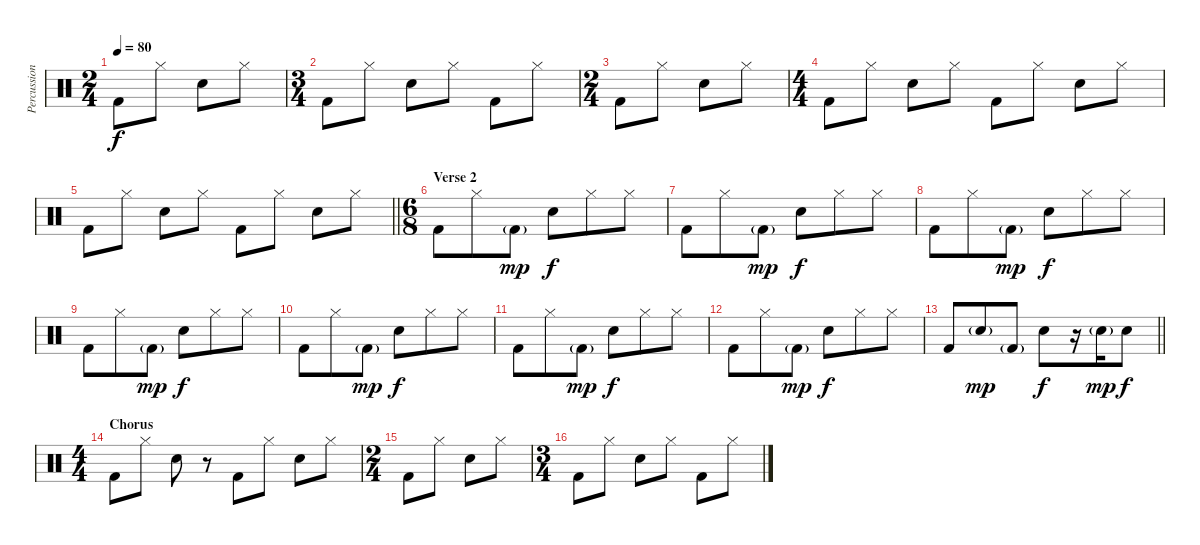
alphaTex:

\track ("Percussion" "Percussion") {instrument percussion}
\staff {score}
\articulation defaults
\ts (2 4)
\tempo 80
\clef neutral
\ks c "Kick (hit) 2".8{dy f} "Hi-Hat (closed)".8 "Snare (hit) 2".8 "Hi-Hat (closed)".8
|
\ts (3 4)
"Kick (hit) 2".8 "Hi-Hat (closed)".8 "Snare (hit) 2".8 "Hi-Hat (closed)".8 "Kick (hit) 2".8 "Hi-Hat (closed)".8 |
\ts (2 4)
"Kick (hit) 2".8 "Hi-Hat (closed)".8 "Snare (hit) 2".8 "Hi-Hat (closed)".8 |
\ts (4 4)
"Kick (hit) 2".8 "Hi-Hat (closed)".8 "Snare (hit) 2".8 "Hi-Hat (closed)".8 "Kick (hit) 2".8 "Hi-Hat (closed)".8 "Snare (hit) 2".8 "Hi-Hat (closed)".8 |
\barLineRight lightlight "Kick (hit) 2".8 "Hi-Hat (closed)".8 "Snare (hit) 2".8 "Hi-Hat (closed)".8 "Kick (hit) 2".8 "Hi-Hat (closed)".8 "Snare (hit) 2".8 "Hi-Hat (closed)".8
|
\ts (6 8)
\section ("" "Verse 2")
"Kick (hit) 2".8 "Hi-Hat (closed)".8 "Kick (hit) 2"{g}.8{dy mp} "Snare (hit) 2".8{dy f} "Hi-Hat (closed)".8 "Hi-Hat (closed)".8 |
"Kick (hit) 2".8 "Hi-Hat (closed)".8 "Kick (hit) 2"{g}.8{dy mp} "Snare (hit) 2".8{dy f} "Hi-Hat (closed)".8 "Hi-Hat (closed)".8 |
"Kick (hit) 2".8 "Hi-Hat (closed)".8 "Kick (hit) 2"{g}.8{dy mp} "Snare (hit) 2".8{dy f} "Hi-Hat (closed)".8 "Hi-Hat (closed)".8 |
"Kick (hit) 2".8 "Hi-Hat (closed)".8 "Kick (hit) 2"{g}.8{dy mp} "Snare (hit) 2".8{dy f} "Hi-Hat (closed)".8 "Hi-Hat (closed)".8 |
"Kick (hit) 2".8 "Hi-Hat (closed)".8 "Kick (hit) 2"{g}.8{dy mp} "Snare (hit) 2".8{dy f} "Hi-Hat (closed)".8 "Hi-Hat (closed)".8 |
"Kick (hit) 2".8 "Hi-Hat (closed)".8 "Kick (hit) 2"{g}.8{dy mp} "Snare (hit) 2".8{dy f} "Hi-Hat (closed)".8 "Hi-Hat (closed)".8 |
"Kick (hit) 2".8 "Hi-Hat (closed)".8 "Kick (hit) 2"{g}.8{dy mp} "Snare (hit) 2".8{dy f} "Hi-Hat (closed)".8 "Hi-Hat (closed)".8 |
\barLineRight lightlight "Kick (hit) 2".8 "Snare (hit) 2"{g}.8{dy mp} "Kick (hit) 2"{g}.8 "Snare (hit) 2".8{dy f}
r.16 "Snare (hit) 2"{g}.16{dy mp} "Snare (hit) 2".8{dy f} |
\ts (4 4)
\section ("" "Chorus")
"Kick (hit) 2".8 "Hi-Hat (closed)".8 "Snare (hit) 2".8 r.8 "Kick (hit) 2".8 "Hi-Hat (closed)".8 "Snare (hit) 2".8 "Hi-Hat (closed)".8 |
\ts (2 4)
"Kick (hit) 2".8 "Hi-Hat (closed)".8 "Snare (hit) 2".8 "Hi-Hat (closed)".8 |
\ts (3 4)
"Kick (hit) 2".8 "Hi-Hat (closed)".8 "Snare (hit) 2".8 "Hi-Hat (closed)".8 "Kick (hit) 2".8 "Hi-Hat (closed)".8
